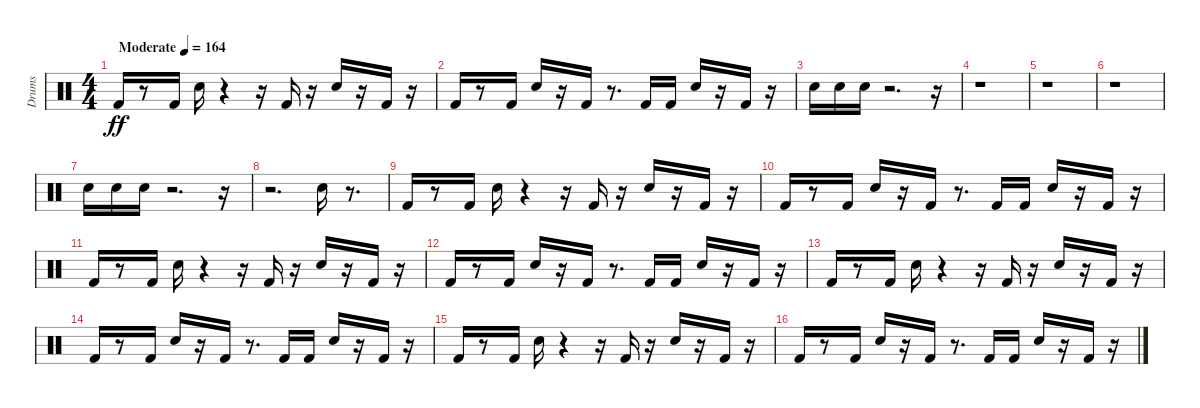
\track ("Drums               " "Drums     ") {instrument percussion}
\staff {score}
\articulation defaults
\ts (4 4)
\tempo (164 "Moderate")
\clef neutral
\ks c "Kick (hit) 2".16{dy ff}
r.8 "Kick (hit) 2".16 "Electric Snare (hit)".16 r.4 r.16 "Kick (hit) 2".16 r.16 "Electric Snare (hit)".16 r.16 "Kick (hit) 2".16 r.16 |
"Kick (hit) 2".16 r.8 "Kick (hit) 2".16 "Electric Snare (hit)".16 r.16 "Kick (hit) 2".16 r.8{d} "Kick (hit) 2".16 "Kick (hit) 2".16 "Electric Snare (hit)".16 r.16 "Kick (hit) 2".16 r.16 |
"Electric Snare (hit)".16 "Electric Snare (hit)".16 "Electric Snare (hit)".16 r.2{d} r.16 |
r.1 |
r.1 |
r.1 |
"Electric Snare (hit)".16 "Electric Snare (hit)".16 "Electric Snare (hit)".16 r.2{d} r.16 |
r.2{d} "Electric Snare (hit)".16 r.8{d} |
"Kick (hit) 2".16 r.8 "Kick (hit) 2".16 "Electric Snare (hit)".16 r.4 r.16 "Kick (hit) 2".16 r.16 "Electric Snare (hit)".16 r.16 "Kick (hit) 2".16 r.16 |
"Kick (hit) 2".16 r.8 "Kick (hit) 2".16 "Electric Snare (hit)".16 r.16 "Kick (hit) 2".16 r.8{d} "Kick (hit) 2".16 "Kick (hit) 2".16 "Electric Snare (hit)".16 r.16 "Kick (hit) 2".16 r.16 |
"Kick (hit) 2".16 r.8 "Kick (hit) 2".16 "Electric Snare (hit)".16 r.4 r.16 "Kick (hit) 2".16 r.16 "Electric Snare (hit)".16 r.16 "Kick (hit) 2".16 r.16 |
"Kick (hit) 2".16 r.8 "Kick (hit) 2".16 "Electric Snare (hit)".16 r.16 "Kick (hit) 2".16 r.8{d} "Kick (hit) 2".16 "Kick (hit) 2".16 "Electric Snare (hit)".16 r.16 "Kick (hit) 2".16 r.16 |
"Kick (hit) 2".16 r.8 "Kick (hit) 2".16 "Electric Snare (hit)".16 r.4 r.16 "Kick (hit) 2".16 r.16 "Electric Snare (hit)".16 r.16 "Kick (hit) 2".16 r.16 |
"Kick (hit) 2".16 r.8 "Kick (hit) 2".16 "Electric Snare (hit)".16 r.16 "Kick (hit) 2".16 r.8{d} "Kick (hit) 2".16 "Kick (hit) 2".16 "Electric Snare (hit)".16 r.16 "Kick (hit) 2".16 r.16 |
"Kick (hit) 2".16 r.8 "Kick (hit) 2".16 "Electric Snare (hit)".16 r.4 r.16 "Kick (hit) 2".16 r.16 "Electric Snare (hit)".16 r.16 "Kick (hit) 2".16 r.16 |
"Kick (hit) 2".16 r.8 "Kick (hit) 2".16 "Electric Snare (hit)".16 r.16 "Kick (hit) 2".16 r.8{d} "Kick (hit) 2".16 "Kick (hit) 2".16 "Electric Snare (hit)".16 r.16 "Kick (hit) 2".16 r.16
